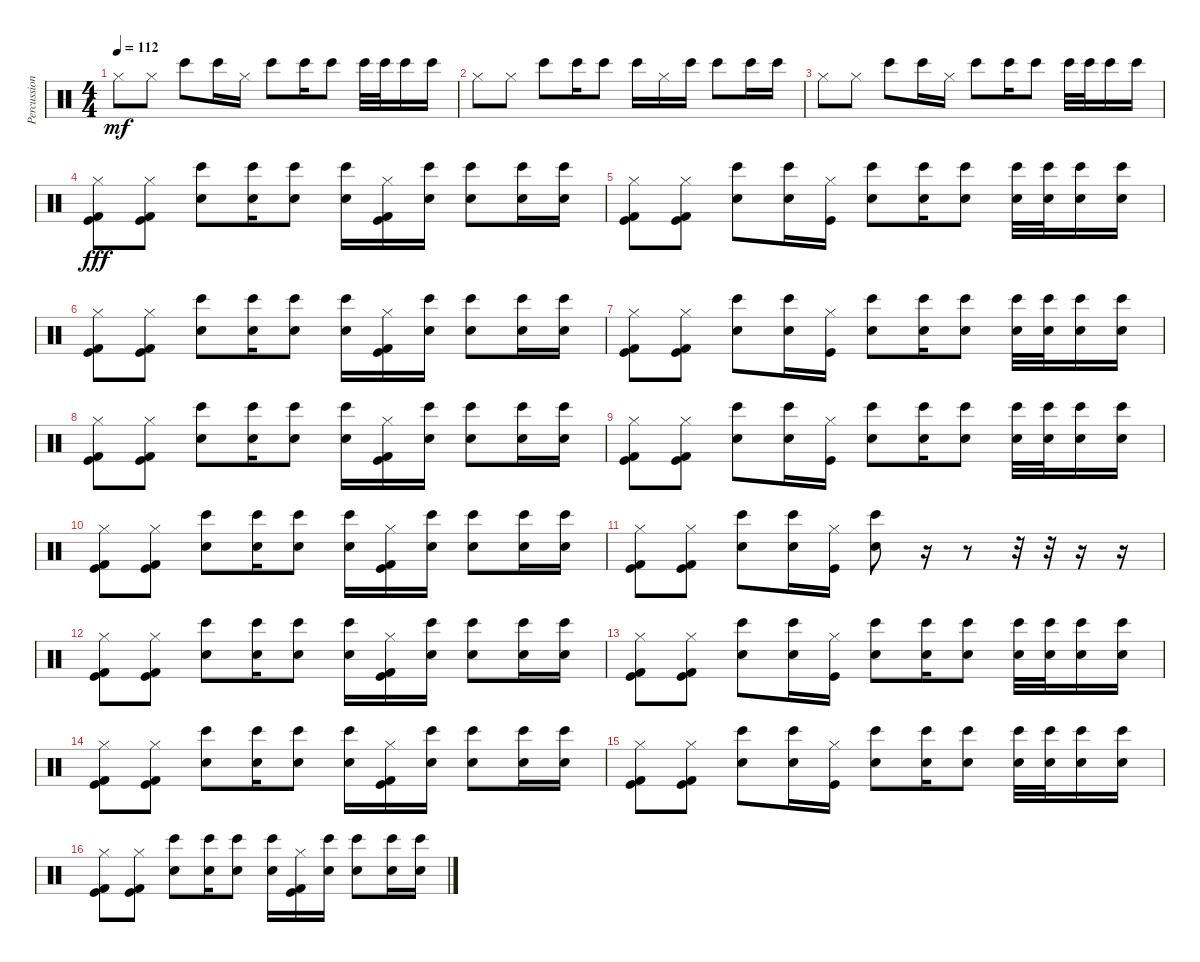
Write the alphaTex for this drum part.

\track ("Percussion" "Percussion") {instrument percussion}
\staff {score}
\articulation defaults
\ts (4 4)
\tempo 112
\clef neutral
\ks c "Hi-Hat (closed)".8{dy mf} "Hi-Hat (closed)".8 "Bongo High (hit)".8 "Bongo High (hit)".16 "Hi-Hat (closed)".16 "Bongo High (hit)".8 "Bongo High (hit)".16 "Bongo High (hit)".8 "Bongo High (hit)".32 "Bongo High (hit)".32 "Bongo High (hit)".16 "Bongo High (hit)".16
|
"Hi-Hat (closed)".8 "Hi-Hat (closed)".8 "Bongo High (hit)".8 "Bongo High (hit)".16 "Bongo High (hit)".8 "Bongo High (hit)".16 "Hi-Hat (closed)".16 "Bongo High (hit)".16 "Bongo High (hit)".8 "Bongo High (hit)".16 "Bongo High (hit)".16 |
"Hi-Hat (closed)".8 "Hi-Hat (closed)".8 "Bongo High (hit)".8 "Bongo High (hit)".16 "Hi-Hat (closed)".16 "Bongo High (hit)".8 "Bongo High (hit)".16 "Bongo High (hit)".8 "Bongo High (hit)".32 "Bongo High (hit)".32 "Bongo High (hit)".16 "Bongo High (hit)".16 |
("Kick (hit)" "Hi-Hat (closed)" "Kick (hit) 2").8{dy fff} ("Hi-Hat (closed)" "Kick (hit)" "Kick (hit) 2").8 ("Bongo High (hit)" "Snare (hit) 2").8 ("Bongo High (hit)" "Snare (hit) 2").16 ("Bongo High (hit)" "Snare (hit) 2").8 ("Snare (hit) 2" "Bongo High (hit)").16 ("Hi-Hat (closed)" "Kick (hit) 2" "Kick (hit)").16 ("Bongo High (hit)" "Snare (hit) 2").16 ("Bongo High (hit)" "Snare (hit) 2").8 ("Bongo High (hit)" "Snare (hit) 2").16 ("Bongo High (hit)" "Snare (hit) 2").16 |
("Kick (hit)" "Hi-Hat (closed)" "Kick (hit) 2").8 ("Hi-Hat (closed)" "Kick (hit)" "Kick (hit) 2").8 ("Bongo High (hit)" "Snare (hit) 2").8 ("Bongo High (hit)" "Snare (hit) 2").16 ("Hi-Hat (closed)" "Kick (hit)").16 ("Snare (hit) 2" "Bongo High (hit)").8 ("Bongo High (hit)" "Snare (hit) 2").16 ("Bongo High (hit)" "Snare (hit) 2").8 ("Bongo High (hit)" "Snare (hit) 2").32 ("Bongo High (hit)" "Snare (hit) 2").32 ("Bongo High (hit)" "Snare (hit) 2").16 ("Bongo High (hit)" "Snare (hit) 2").16 |
("Kick (hit)" "Hi-Hat (closed)" "Kick (hit) 2").8 ("Hi-Hat (closed)" "Kick (hit)" "Kick (hit) 2").8 ("Bongo High (hit)" "Snare (hit) 2").8 ("Bongo High (hit)" "Snare (hit) 2").16 ("Bongo High (hit)" "Snare (hit) 2").8 ("Snare (hit) 2" "Bongo High (hit)").16 ("Hi-Hat (closed)" "Kick (hit) 2" "Kick (hit)").16 ("Bongo High (hit)" "Snare (hit) 2").16 ("Bongo High (hit)" "Snare (hit) 2").8 ("Bongo High (hit)" "Snare (hit) 2").16 ("Bongo High (hit)" "Snare (hit) 2").16 |
("Kick (hit)" "Hi-Hat (closed)" "Kick (hit) 2").8 ("Hi-Hat (closed)" "Kick (hit)" "Kick (hit) 2").8 ("Bongo High (hit)" "Snare (hit) 2").8 ("Bongo High (hit)" "Snare (hit) 2").16 ("Hi-Hat (closed)" "Kick (hit)").16 ("Snare (hit) 2" "Bongo High (hit)").8 ("Bongo High (hit)" "Snare (hit) 2").16 ("Bongo High (hit)" "Snare (hit) 2").8 ("Bongo High (hit)" "Snare (hit) 2").32 ("Bongo High (hit)" "Snare (hit) 2").32 ("Bongo High (hit)" "Snare (hit) 2").16 ("Bongo High (hit)" "Snare (hit) 2").16 |
("Kick (hit)" "Hi-Hat (closed)" "Kick (hit) 2").8 ("Hi-Hat (closed)" "Kick (hit)" "Kick (hit) 2").8 ("Bongo High (hit)" "Snare (hit) 2").8 ("Bongo High (hit)" "Snare (hit) 2").16 ("Bongo High (hit)" "Snare (hit) 2").8 ("Snare (hit) 2" "Bongo High (hit)").16 ("Hi-Hat (closed)" "Kick (hit) 2" "Kick (hit)").16 ("Bongo High (hit)" "Snare (hit) 2").16 ("Bongo High (hit)" "Snare (hit) 2").8 ("Bongo High (hit)" "Snare (hit) 2").16 ("Bongo High (hit)" "Snare (hit) 2").16 |
("Kick (hit)" "Hi-Hat (closed)" "Kick (hit) 2").8 ("Hi-Hat (closed)" "Kick (hit)" "Kick (hit) 2").8 ("Bongo High (hit)" "Snare (hit) 2").8 ("Bongo High (hit)" "Snare (hit) 2").16 ("Hi-Hat (closed)" "Kick (hit)").16 ("Snare (hit) 2" "Bongo High (hit)").8 ("Bongo High (hit)" "Snare (hit) 2").16 ("Bongo High (hit)" "Snare (hit) 2").8 ("Bongo High (hit)" "Snare (hit) 2").32 ("Bongo High (hit)" "Snare (hit) 2").32 ("Bongo High (hit)" "Snare (hit) 2").16 ("Bongo High (hit)" "Snare (hit) 2").16 |
("Kick (hit)" "Hi-Hat (closed)" "Kick (hit) 2").8 ("Hi-Hat (closed)" "Kick (hit)" "Kick (hit) 2").8 ("Bongo High (hit)" "Snare (hit) 2").8 ("Bongo High (hit)" "Snare (hit) 2").16 ("Bongo High (hit)" "Snare (hit) 2").8 ("Snare (hit) 2" "Bongo High (hit)").16 ("Hi-Hat (closed)" "Kick (hit) 2" "Kick (hit)").16 ("Bongo High (hit)" "Snare (hit) 2").16 ("Bongo High (hit)" "Snare (hit) 2").8 ("Bongo High (hit)" "Snare (hit) 2").16 ("Bongo High (hit)" "Snare (hit) 2").16 |
("Kick (hit)" "Hi-Hat (closed)" "Kick (hit) 2").8 ("Hi-Hat (closed)" "Kick (hit)" "Kick (hit) 2").8 ("Bongo High (hit)" "Snare (hit) 2").8 ("Bongo High (hit)" "Snare (hit) 2").16 ("Hi-Hat (closed)" "Kick (hit)").16 ("Snare (hit) 2" "Bongo High (hit)").8 r.16 r.8 r.32 r.32 r.16 r.16 |
("Kick (hit)" "Hi-Hat (closed)" "Kick (hit) 2").8 ("Hi-Hat (closed)" "Kick (hit)" "Kick (hit) 2").8 ("Bongo High (hit)" "Snare (hit) 2").8 ("Bongo High (hit)" "Snare (hit) 2").16 ("Bongo High (hit)" "Snare (hit) 2").8 ("Snare (hit) 2" "Bongo High (hit)").16 ("Hi-Hat (closed)" "Kick (hit) 2" "Kick (hit)").16 ("Bongo High (hit)" "Snare (hit) 2").16 ("Bongo High (hit)" "Snare (hit) 2").8 ("Bongo High (hit)" "Snare (hit) 2").16 ("Bongo High (hit)" "Snare (hit) 2").16 |
("Kick (hit)" "Hi-Hat (closed)" "Kick (hit) 2").8 ("Hi-Hat (closed)" "Kick (hit)" "Kick (hit) 2").8 ("Bongo High (hit)" "Snare (hit) 2").8 ("Bongo High (hit)" "Snare (hit) 2").16 ("Hi-Hat (closed)" "Kick (hit)").16 ("Snare (hit) 2" "Bongo High (hit)").8 ("Bongo High (hit)" "Snare (hit) 2").16 ("Bongo High (hit)" "Snare (hit) 2").8 ("Bongo High (hit)" "Snare (hit) 2").32 ("Bongo High (hit)" "Snare (hit) 2").32 ("Bongo High (hit)" "Snare (hit) 2").16 ("Bongo High (hit)" "Snare (hit) 2").16 |
("Kick (hit)" "Hi-Hat (closed)" "Kick (hit) 2").8 ("Hi-Hat (closed)" "Kick (hit)" "Kick (hit) 2").8 ("Bongo High (hit)" "Snare (hit) 2").8 ("Bongo High (hit)" "Snare (hit) 2").16 ("Bongo High (hit)" "Snare (hit) 2").8 ("Snare (hit) 2" "Bongo High (hit)").16 ("Hi-Hat (closed)" "Kick (hit) 2" "Kick (hit)").16 ("Bongo High (hit)" "Snare (hit) 2").16 ("Bongo High (hit)" "Snare (hit) 2").8 ("Bongo High (hit)" "Snare (hit) 2").16 ("Bongo High (hit)" "Snare (hit) 2").16 |
("Kick (hit)" "Hi-Hat (closed)" "Kick (hit) 2").8 ("Hi-Hat (closed)" "Kick (hit)" "Kick (hit) 2").8 ("Bongo High (hit)" "Snare (hit) 2").8 ("Bongo High (hit)" "Snare (hit) 2").16 ("Hi-Hat (closed)" "Kick (hit)").16 ("Snare (hit) 2" "Bongo High (hit)").8 ("Bongo High (hit)" "Snare (hit) 2").16 ("Bongo High (hit)" "Snare (hit) 2").8 ("Bongo High (hit)" "Snare (hit) 2").32 ("Bongo High (hit)" "Snare (hit) 2").32 ("Bongo High (hit)" "Snare (hit) 2").16 ("Bongo High (hit)" "Snare (hit) 2").16 |
("Kick (hit)" "Hi-Hat (closed)" "Kick (hit) 2").8 ("Hi-Hat (closed)" "Kick (hit)" "Kick (hit) 2").8 ("Bongo High (hit)" "Snare (hit) 2").8 ("Bongo High (hit)" "Snare (hit) 2").16 ("Bongo High (hit)" "Snare (hit) 2").8 ("Snare (hit) 2" "Bongo High (hit)").16 ("Hi-Hat (closed)" "Kick (hit) 2" "Kick (hit)").16 ("Bongo High (hit)" "Snare (hit) 2").16 ("Bongo High (hit)" "Snare (hit) 2").8 ("Bongo High (hit)" "Snare (hit) 2").16 ("Bongo High (hit)" "Snare (hit) 2").16
